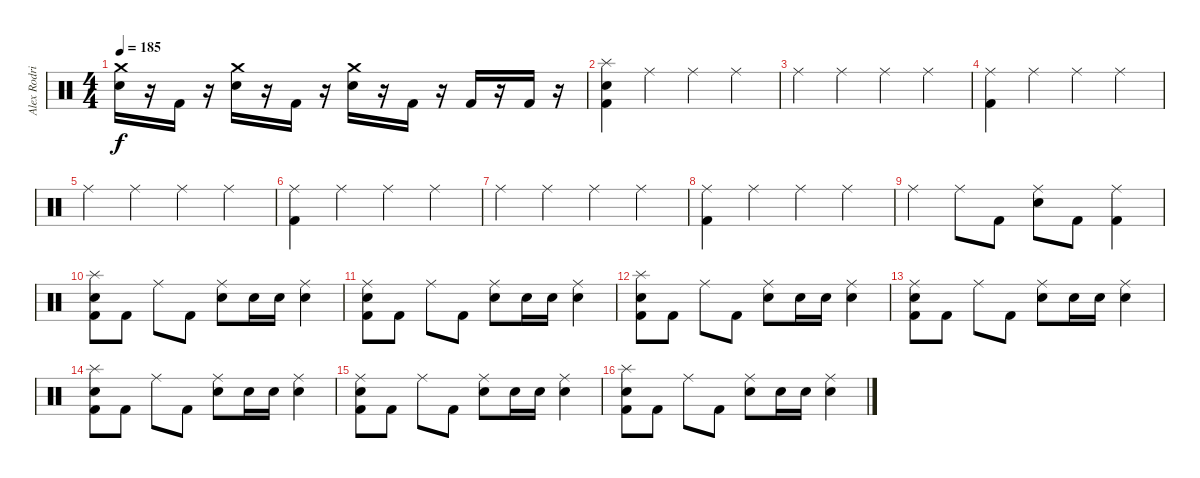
\track ("Alex Rodriguez" "Alex Rodri") {instrument percussion}
\staff {score}
\articulation defaults
\ts (4 4)
\tempo 185
\clef neutral
\ks c
("Crash medium (hit)" "Electric Snare (hit)").16{dy f} r.16 "Kick (hit) 2".16 r.16 ("Crash medium (hit)" "Electric Snare (hit)").16 r.16 "Kick (hit) 2".16 r.16 ("Crash medium (hit)" "Electric Snare (hit)").16 r.16 "Kick (hit) 2".16 r.16 "Kick (hit) 2".16 r.16 "Kick (hit) 2".16 r.16 |
("Splash (hit)" "Electric Snare (hit)" "Kick (hit) 2").4 "Ride (middle)".4 "Ride (middle)".4 "Ride (middle)".4 |
"Ride (middle)".4 "Ride (middle)".4 "Ride (middle)".4 "Ride (middle)".4 |
("Ride (middle)" "Kick (hit) 2").4 "Ride (middle)".4 "Ride (middle)".4 "Ride (middle)".4 |
"Ride (middle)".4 "Ride (middle)".4 "Ride (middle)".4 "Ride (middle)".4 |
("Ride (middle)" "Kick (hit) 2").4 "Ride (middle)".4 "Ride (middle)".4 "Ride (middle)".4 |
"Ride (middle)".4 "Ride (middle)".4 "Ride (middle)".4 "Ride (middle)".4 |
("Ride (middle)" "Kick (hit) 2").4 "Ride (middle)".4 "Ride (middle)".4 "Ride (middle)".4 |
"Ride (middle)".4 "Ride (middle)".8 "Kick (hit) 2".8 ("Ride (middle)" "Electric Snare (hit)").8 "Kick (hit) 2".8 ("Ride (middle)" "Kick (hit) 2").4 |
("Splash (hit)" "Electric Snare (hit)" "Kick (hit) 2").8 "Kick (hit) 2".8 "Ride (middle)".8 "Kick (hit) 2".8 ("Ride (middle)" "Electric Snare (hit)").8 "Electric Snare (hit)".16 "Electric Snare (hit)".16 ("Ride (middle)" "Electric Snare (hit)").4 |
("Ride (middle)" "Electric Snare (hit)" "Kick (hit) 2").8 "Kick (hit) 2".8 "Ride (middle)".8 "Kick (hit) 2".8 ("Ride (middle)" "Electric Snare (hit)").8 "Electric Snare (hit)".16 "Electric Snare (hit)".16 ("Ride (middle)" "Electric Snare (hit)").4 |
("Splash (hit)" "Electric Snare (hit)" "Kick (hit) 2").8 "Kick (hit) 2".8 "Ride (middle)".8 "Kick (hit) 2".8 ("Ride (middle)" "Electric Snare (hit)").8 "Electric Snare (hit)".16 "Electric Snare (hit)".16 ("Ride (middle)" "Electric Snare (hit)").4 |
("Ride (middle)" "Electric Snare (hit)" "Kick (hit) 2").8 "Kick (hit) 2".8 "Ride (middle)".8 "Kick (hit) 2".8 ("Ride (middle)" "Electric Snare (hit)").8 "Electric Snare (hit)".16 "Electric Snare (hit)".16 ("Ride (middle)" "Electric Snare (hit)").4 |
("Splash (hit)" "Electric Snare (hit)" "Kick (hit) 2").8 "Kick (hit) 2".8 "Ride (middle)".8 "Kick (hit) 2".8 ("Ride (middle)" "Electric Snare (hit)").8 "Electric Snare (hit)".16 "Electric Snare (hit)".16 ("Ride (middle)" "Electric Snare (hit)").4 |
("Ride (middle)" "Electric Snare (hit)" "Kick (hit) 2").8 "Kick (hit) 2".8 "Ride (middle)".8 "Kick (hit) 2".8 ("Ride (middle)" "Electric Snare (hit)").8 "Electric Snare (hit)".16 "Electric Snare (hit)".16 ("Ride (middle)" "Electric Snare (hit)").4 |
("Splash (hit)" "Electric Snare (hit)" "Kick (hit) 2").8 "Kick (hit) 2".8 "Ride (middle)".8 "Kick (hit) 2".8 ("Ride (middle)" "Electric Snare (hit)").8 "Electric Snare (hit)".16 "Electric Snare (hit)".16 ("Ride (middle)" "Electric Snare (hit)").4
